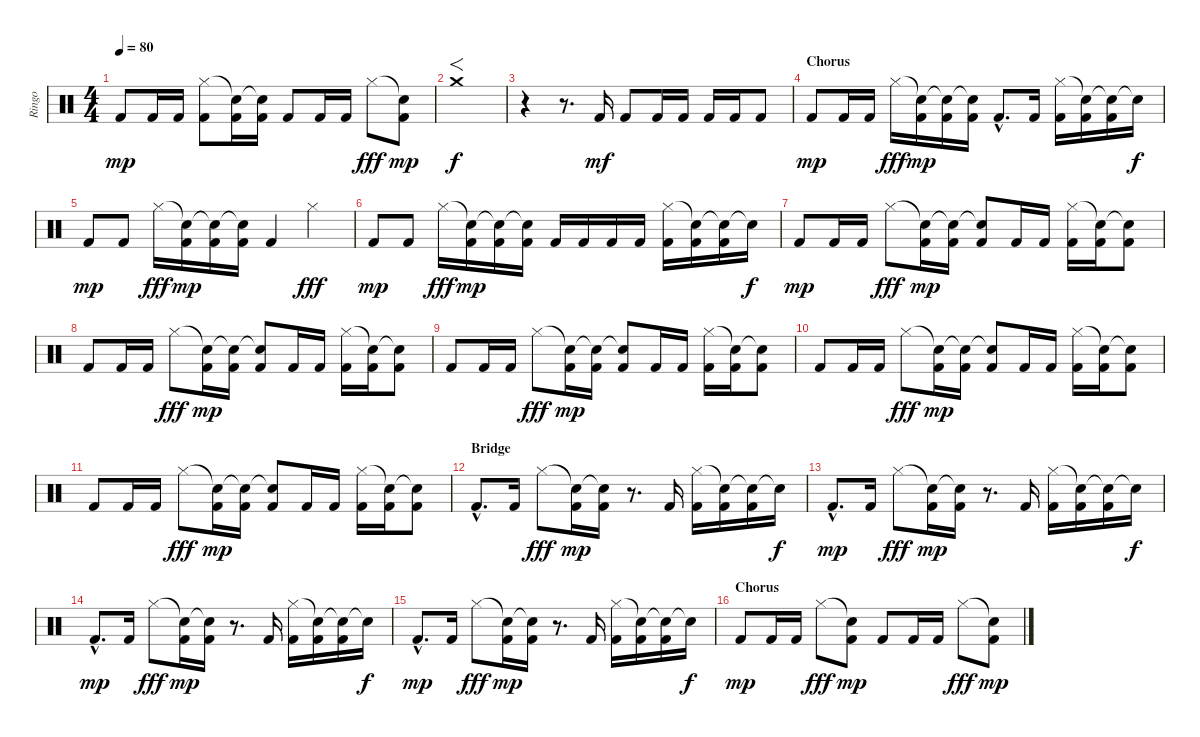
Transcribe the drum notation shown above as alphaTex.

\track ("Ringo" "Ringo") {instrument percussion}
\staff {score}
\articulation defaults
\ts (4 4)
\tempo 80
\clef neutral
\ks c "Kick (hit) 2".8{dy mp} "Kick (hit) 2".16 "Kick (hit) 2".16
("Hi-Hat (closed)" "Kick (hit) 2").8 ("Snare (hit)"{t} "Kick (hit) 2").16 ("Snare (hit)"{t} "Kick (hit) 2").16 "Kick (hit) 2".8 "Kick (hit) 2".16 "Kick (hit) 2".16 "Hi-Hat (closed)".8{dy fff} ("Snare (hit)"{t} "Kick (hit) 2").8{dy mp} |
"Crash medium (hit)".1{f dy f} |
r.4 r.8{d} "Kick (hit) 2".16{dy mf} "Kick (hit) 2".8 "Kick (hit) 2".16 "Kick (hit) 2".16 "Kick (hit) 2".16 "Kick (hit) 2".16 "Kick (hit) 2".8 |
\section ("" "Chorus")
"Kick (hit) 2".8{dy mp} "Kick (hit) 2".16 "Kick (hit) 2".16 "Hi-Hat (closed)".16{dy fff} ("Snare (hit)"{t} "Kick (hit) 2").16{dy mp} ("Snare (hit)"{t} "Kick (hit) 2").16 ("Snare (hit)"{t} "Kick (hit) 2").16 "Kick (hit) 2"{hac}.8{d} "Kick (hit) 2".16 ("Hi-Hat (closed)" "Kick (hit) 2").16 ("Snare (hit)"{t} "Kick (hit) 2").16 ("Snare (hit)"{t} "Kick (hit) 2").16 "Snare (hit)"{t}.16{dy f} |
"Kick (hit) 2".8{dy mp} "Kick (hit) 2".8 "Hi-Hat (closed)".16{dy fff} ("Snare (hit)"{t} "Kick (hit) 2").16{dy mp} ("Snare (hit)"{t} "Kick (hit) 2").16 ("Snare (hit)"{t} "Kick (hit) 2").16 "Kick (hit) 2".4 "Hi-Hat (closed)".4{dy fff} |
"Kick (hit) 2".8{dy mp} "Kick (hit) 2".8 "Hi-Hat (closed)".16{dy fff} ("Snare (hit)"{t} "Kick (hit) 2").16{dy mp} ("Snare (hit)"{t} "Kick (hit) 2").16 ("Snare (hit)"{t} "Kick (hit) 2").16 "Kick (hit) 2".16 "Kick (hit) 2".16 "Kick (hit) 2".16 "Kick (hit) 2".16 ("Hi-Hat (closed)" "Kick (hit) 2").16 ("Snare (hit)"{t} "Kick (hit) 2").16 ("Snare (hit)"{t} "Kick (hit) 2").16 "Snare (hit)"{t}.16{dy f} |
"Kick (hit) 2".8{dy mp} "Kick (hit) 2".16 "Kick (hit) 2".16 "Hi-Hat (closed)".8{dy fff} ("Snare (hit)"{t} "Kick (hit) 2").16{dy mp} ("Snare (hit)"{t} "Kick (hit) 2").16 ("Snare (hit)"{t} "Kick (hit) 2").8 "Kick (hit) 2".16 "Kick (hit) 2".16 ("Hi-Hat (closed)" "Kick (hit) 2").16 ("Snare (hit)"{t} "Kick (hit) 2").16 ("Snare (hit)"{t} "Kick (hit) 2").8 |
"Kick (hit) 2".8 "Kick (hit) 2".16 "Kick (hit) 2".16 "Hi-Hat (closed)".8{dy fff} ("Snare (hit)"{t} "Kick (hit) 2").16{dy mp} ("Snare (hit)"{t} "Kick (hit) 2").16 ("Snare (hit)"{t} "Kick (hit) 2").8 "Kick (hit) 2".16 "Kick (hit) 2".16 ("Hi-Hat (closed)" "Kick (hit) 2").16 ("Snare (hit)"{t} "Kick (hit) 2").16 ("Snare (hit)"{t} "Kick (hit) 2").8 |
"Kick (hit) 2".8 "Kick (hit) 2".16 "Kick (hit) 2".16 "Hi-Hat (closed)".8{dy fff} ("Snare (hit)"{t} "Kick (hit) 2").16{dy mp} ("Snare (hit)"{t} "Kick (hit) 2").16 ("Snare (hit)"{t} "Kick (hit) 2").8 "Kick (hit) 2".16 "Kick (hit) 2".16 ("Hi-Hat (closed)" "Kick (hit) 2").16 ("Snare (hit)"{t} "Kick (hit) 2").16 ("Snare (hit)"{t} "Kick (hit) 2").8 |
"Kick (hit) 2".8 "Kick (hit) 2".16 "Kick (hit) 2".16 "Hi-Hat (closed)".8{dy fff} ("Snare (hit)"{t} "Kick (hit) 2").16{dy mp} ("Snare (hit)"{t} "Kick (hit) 2").16 ("Snare (hit)"{t} "Kick (hit) 2").8 "Kick (hit) 2".16 "Kick (hit) 2".16 ("Hi-Hat (closed)" "Kick (hit) 2").16 ("Snare (hit)"{t} "Kick (hit) 2").16 ("Snare (hit)"{t} "Kick (hit) 2").8 |
"Kick (hit) 2".8 "Kick (hit) 2".16 "Kick (hit) 2".16 "Hi-Hat (closed)".8{dy fff} ("Snare (hit)"{t} "Kick (hit) 2").16{dy mp} ("Snare (hit)"{t} "Kick (hit) 2").16 ("Snare (hit)"{t} "Kick (hit) 2").8 "Kick (hit) 2".16 "Kick (hit) 2".16 ("Hi-Hat (closed)" "Kick (hit) 2").16 ("Snare (hit)"{t} "Kick (hit) 2").16 ("Snare (hit)"{t} "Kick (hit) 2").8 |
\section ("" "Bridge")
"Kick (hit) 2"{hac}.8{d} "Kick (hit) 2".16 "Hi-Hat (closed)".8{dy fff} ("Snare (hit)"{t} "Kick (hit) 2").16{dy mp} ("Snare (hit)"{t} "Kick (hit) 2").16 r.8{d} "Kick (hit) 2".16 ("Hi-Hat (closed)" "Kick (hit) 2").16 ("Snare (hit)"{t} "Kick (hit) 2").16 ("Snare (hit)"{t} "Kick (hit) 2").16 "Snare (hit)"{t}.16{dy f} |
"Kick (hit) 2"{hac}.8{d dy mp} "Kick (hit) 2".16 "Hi-Hat (closed)".8{dy fff} ("Snare (hit)"{t} "Kick (hit) 2").16{dy mp} ("Snare (hit)"{t} "Kick (hit) 2").16 r.8{d} "Kick (hit) 2".16 ("Hi-Hat (closed)" "Kick (hit) 2").16 ("Snare (hit)"{t} "Kick (hit) 2").16 ("Snare (hit)"{t} "Kick (hit) 2").16 "Snare (hit)"{t}.16{dy f} |
"Kick (hit) 2"{hac}.8{d dy mp} "Kick (hit) 2".16 "Hi-Hat (closed)".8{dy fff} ("Snare (hit)"{t} "Kick (hit) 2").16{dy mp} ("Snare (hit)"{t} "Kick (hit) 2").16 r.8{d} "Kick (hit) 2".16 ("Hi-Hat (closed)" "Kick (hit) 2").16 ("Snare (hit)"{t} "Kick (hit) 2").16 ("Snare (hit)"{t} "Kick (hit) 2").16 "Snare (hit)"{t}.16{dy f} |
"Kick (hit) 2"{hac}.8{d dy mp} "Kick (hit) 2".16 "Hi-Hat (closed)".8{dy fff} ("Snare (hit)"{t} "Kick (hit) 2").16{dy mp} ("Snare (hit)"{t} "Kick (hit) 2").16 r.8{d} "Kick (hit) 2".16 ("Hi-Hat (closed)" "Kick (hit) 2").16 ("Snare (hit)"{t} "Kick (hit) 2").16 ("Snare (hit)"{t} "Kick (hit) 2").16 "Snare (hit)"{t}.16{dy f} |
\section ("" "Chorus")
"Kick (hit) 2".8{dy mp} "Kick (hit) 2".16 "Kick (hit) 2".16 "Hi-Hat (closed)".8{dy fff} ("Snare (hit)"{t} "Kick (hit) 2").8{dy mp} "Kick (hit) 2".8 "Kick (hit) 2".16 "Kick (hit) 2".16 "Hi-Hat (closed)".8{dy fff} ("Snare (hit)"{t} "Kick (hit) 2").8{dy mp}
